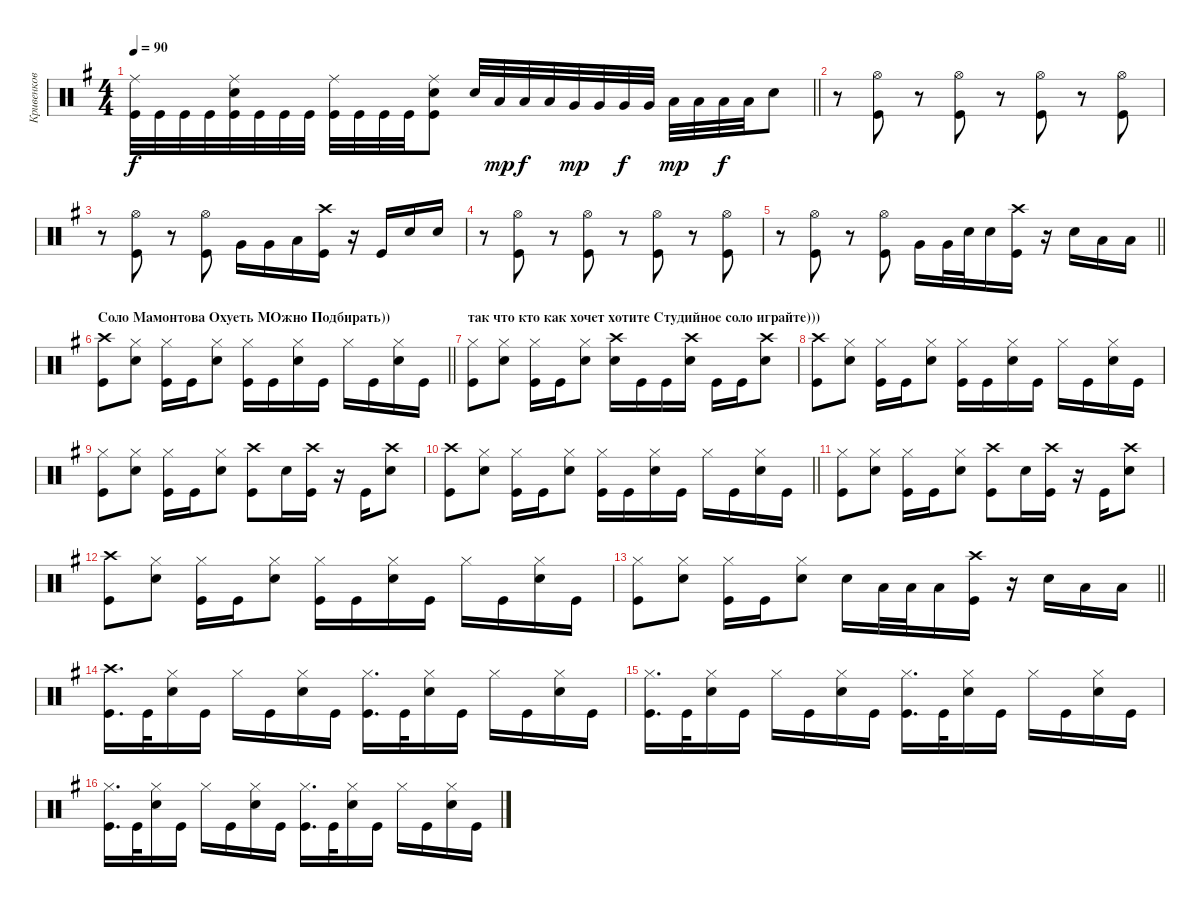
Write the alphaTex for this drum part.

\track ("Кривенков" "Кривенков") {instrument percussion}
\staff {score}
\articulation defaults
\ts (4 4)
\tempo 90
\clef neutral
\barLineRight lightlight
\ks eminor
("Kick (hit)" "Ride (middle)").32{dy f} "Kick (hit)".32 "Kick (hit)".32 "Kick (hit)".32 ("Kick (hit)" "Snare (hit) 2" "Ride (middle)").32 "Kick (hit)".32 "Kick (hit)".32 "Kick (hit)".32 ("Kick (hit)" "Ride (middle)").32 "Kick (hit)".32 "Kick (hit)".32 "Kick (hit)".32 ("Kick (hit)" "Snare (hit) 2" "Ride (middle)").8 "Snare (hit) 2".32 "Low Tom (hit)".32{dy mp} "Low Tom (hit)".32{dy f} "Low Tom (hit)".32 "Very Low Tom (hit)".32{dy mp} "Very Low Tom (hit)".32 "Very Low Tom (hit)".32{dy f} "Very Low Tom (hit)".32 "Low Floor Tom (hit)".32{dy mp} "Low Floor Tom (hit)".32 "Low Floor Tom (hit)".32{dy f} "Low Floor Tom (hit)".32 "Snare (hit) 2".8 |
r.8 ("Kick (hit)" "Hi-Hat (open)").8 r.8 ("Kick (hit)" "Hi-Hat (open)").8 r.8 ("Kick (hit)" "Hi-Hat (open)").8 r.8 ("Kick (hit)" "Hi-Hat (open)").8 |
r.8 ("Kick (hit)" "Hi-Hat (open)").8 r.8 ("Kick (hit)" "Hi-Hat (open)").8 "Very Low Tom (hit)".16 "Very Low Tom (hit)".16 "Low Floor Tom (hit)".16 ("Kick (hit)" "Crash high (hit)").16 r.16 "Kick (hit)".16 "Snare (hit) 2".16 "Snare (hit) 2".16 |
r.8 ("Kick (hit)" "Hi-Hat (open)").8 r.8 ("Kick (hit)" "Hi-Hat (open)").8 r.8 ("Kick (hit)" "Hi-Hat (open)").8 r.8 ("Kick (hit)" "Hi-Hat (open)").8 |
\barLineRight lightlight
r.8 ("Kick (hit)" "Hi-Hat (open)").8 r.8 ("Kick (hit)" "Hi-Hat (open)").8 "Very Low Tom (hit)".16 "Very Low Tom (hit)".32 "Snare (hit) 2".32 "Snare (hit) 2".16 ("Kick (hit)" "Crash high (hit)").16 r.16 "Snare (hit) 2".16 "Low Tom (hit)".16 "Low Tom (hit)".16 |
\section ("" "Соло Мамонтова Охуеть МОжно Подбирать)) ")
\barLineRight lightlight
("Kick (hit)" "Crash high (hit)").8 ("Snare (hit) 2" "Hi-Hat (closed)").8 ("Kick (hit)" "Hi-Hat (closed)").16 "Kick (hit)".16 ("Snare (hit) 2" "Hi-Hat (closed)").8 ("Kick (hit)" "Hi-Hat (closed)").16 "Kick (hit)".16 ("Snare (hit) 2" "Hi-Hat (closed)").16 "Kick (hit)".16 "Hi-Hat (closed)".16 "Kick (hit)".16 ("Snare (hit) 2" "Hi-Hat (closed)").16 "Kick (hit)".16 |
\section ("" "так что кто как хочет хотите Студийное соло играйте))) ")
("Kick (hit)" "Hi-Hat (closed)").8 ("Snare (hit) 2" "Hi-Hat (closed)").8 ("Kick (hit)" "Hi-Hat (closed)").16 "Kick (hit)".16 ("Snare (hit) 2" "Hi-Hat (closed)").8 ("Snare (hit) 2" "Crash high (hit)").16 "Kick (hit)".16 "Kick (hit)".16 ("Snare (hit) 2" "Crash high (hit)").16 "Kick (hit)".16 "Kick (hit)".16 ("Snare (hit) 2" "Crash high (hit)").8 |
("Kick (hit)" "Crash high (hit)").8 ("Snare (hit) 2" "Hi-Hat (closed)").8 ("Kick (hit)" "Hi-Hat (closed)").16 "Kick (hit)".16 ("Snare (hit) 2" "Hi-Hat (closed)").8 ("Kick (hit)" "Hi-Hat (closed)").16 "Kick (hit)".16 ("Snare (hit) 2" "Hi-Hat (closed)").16 "Kick (hit)".16 "Hi-Hat (closed)".16 "Kick (hit)".16 ("Snare (hit) 2" "Hi-Hat (closed)").16 "Kick (hit)".16 |
("Kick (hit)" "Hi-Hat (closed)").8 ("Snare (hit) 2" "Hi-Hat (closed)").8 ("Kick (hit)" "Hi-Hat (closed)").16 "Kick (hit)".16 ("Snare (hit) 2" "Hi-Hat (closed)").8 ("Crash high (hit)" "Kick (hit)").8 "Snare (hit) 2".16 ("Crash high (hit)" "Kick (hit)").16 r.16 "Kick (hit)".16 ("Snare (hit) 2" "Crash high (hit)").8 |
\barLineRight lightlight
("Kick (hit)" "Crash high (hit)").8 ("Snare (hit) 2" "Hi-Hat (closed)").8 ("Kick (hit)" "Hi-Hat (closed)").16 "Kick (hit)".16 ("Snare (hit) 2" "Hi-Hat (closed)").8 ("Kick (hit)" "Hi-Hat (closed)").16 "Kick (hit)".16 ("Snare (hit) 2" "Hi-Hat (closed)").16 "Kick (hit)".16 "Hi-Hat (closed)".16 "Kick (hit)".16 ("Snare (hit) 2" "Hi-Hat (closed)").16 "Kick (hit)".16 |
\section ("" "")
("Kick (hit)" "Hi-Hat (closed)").8 ("Snare (hit) 2" "Hi-Hat (closed)").8 ("Kick (hit)" "Hi-Hat (closed)").16 "Kick (hit)".16 ("Snare (hit) 2" "Hi-Hat (closed)").8 ("Crash high (hit)" "Kick (hit)").8 "Snare (hit) 2".16 ("Crash high (hit)" "Kick (hit)").16 r.16 "Kick (hit)".16 ("Snare (hit) 2" "Crash high (hit)").8 |
("Kick (hit)" "Crash high (hit)").8 ("Snare (hit) 2" "Hi-Hat (closed)").8 ("Kick (hit)" "Hi-Hat (closed)").16 "Kick (hit)".16 ("Snare (hit) 2" "Hi-Hat (closed)").8 ("Kick (hit)" "Hi-Hat (closed)").16 "Kick (hit)".16 ("Snare (hit) 2" "Hi-Hat (closed)").16 "Kick (hit)".16 "Hi-Hat (closed)".16 "Kick (hit)".16 ("Snare (hit) 2" "Hi-Hat (closed)").16 "Kick (hit)".16 |
\barLineRight lightlight
("Kick (hit)" "Hi-Hat (closed)").8 ("Snare (hit) 2" "Hi-Hat (closed)").8 ("Kick (hit)" "Hi-Hat (closed)").16 "Kick (hit)".16 ("Snare (hit) 2" "Hi-Hat (closed)").8 "Snare (hit) 2".16 "Low Tom (hit)".32 "Low Tom (hit)".32 "Low Tom (hit)".16 ("Kick (hit)" "Crash high (hit)").16 r.16 "Snare (hit) 2".16 "Low Tom (hit)".16 "Low Tom (hit)".16 |
("Kick (hit)" "Crash high (hit)").16{d} "Kick (hit)".32 ("Hi-Hat (closed)" "Snare (hit) 2").16 "Kick (hit)".16 "Hi-Hat (closed)".16 "Kick (hit)".16 ("Snare (hit) 2" "Hi-Hat (closed)").16 "Kick (hit)".16 ("Kick (hit)" "Hi-Hat (closed)").16{d} "Kick (hit)".32 ("Hi-Hat (closed)" "Snare (hit) 2").16 "Kick (hit)".16 "Hi-Hat (closed)".16 "Kick (hit)".16 ("Snare (hit) 2" "Hi-Hat (closed)").16 "Kick (hit)".16 |
("Kick (hit)" "Hi-Hat (closed)").16{d} "Kick (hit)".32 ("Hi-Hat (closed)" "Snare (hit) 2").16 "Kick (hit)".16 "Hi-Hat (closed)".16 "Kick (hit)".16 ("Snare (hit) 2" "Hi-Hat (closed)").16 "Kick (hit)".16 ("Kick (hit)" "Hi-Hat (closed)").16{d} "Kick (hit)".32 ("Hi-Hat (closed)" "Snare (hit) 2").16 "Kick (hit)".16 "Hi-Hat (closed)".16 "Kick (hit)".16 ("Snare (hit) 2" "Hi-Hat (closed)").16 "Kick (hit)".16 |
("Kick (hit)" "Hi-Hat (closed)").16{d} "Kick (hit)".32 ("Hi-Hat (closed)" "Snare (hit) 2").16 "Kick (hit)".16 "Hi-Hat (closed)".16 "Kick (hit)".16 ("Snare (hit) 2" "Hi-Hat (closed)").16 "Kick (hit)".16 ("Kick (hit)" "Hi-Hat (closed)").16{d} "Kick (hit)".32 ("Hi-Hat (closed)" "Snare (hit) 2").16 "Kick (hit)".16 "Hi-Hat (closed)".16 "Kick (hit)".16 ("Snare (hit) 2" "Hi-Hat (closed)").16 "Kick (hit)".16
